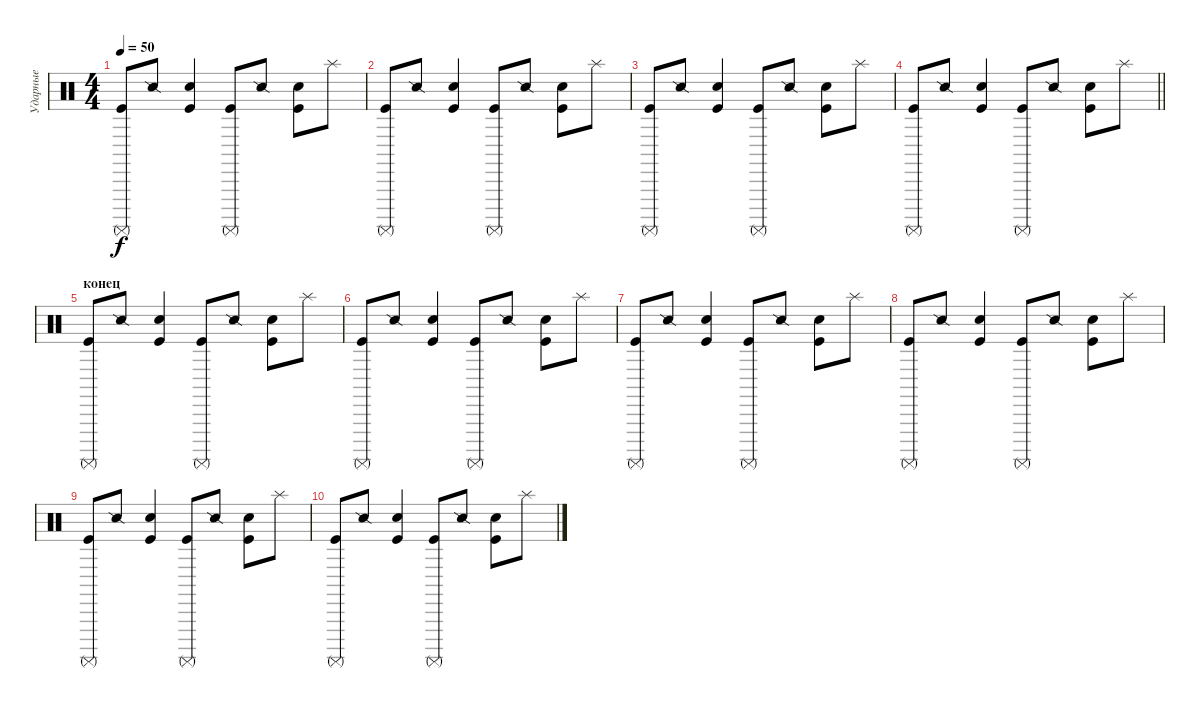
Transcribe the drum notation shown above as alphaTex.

\track ("Ударные" "Ударные") {instrument percussion}
\staff {score}
\articulation defaults
\ts (4 4)
\tempo 50
\clef neutral
\ks c
("Kick (hit)" "Surdo (mute)").8{dy f} "Snare (side stick) 2".8 ("Snare (hit) 2" "Kick (hit)").4 ("Kick (hit)" "Surdo (mute)").8 "Snare (side stick) 2".8 ("Snare (hit) 2" "Kick (hit)").8 "Splash (hit)".8 |
("Kick (hit)" "Surdo (mute)").8 "Snare (side stick) 2".8 ("Snare (hit) 2" "Kick (hit)").4 ("Kick (hit)" "Surdo (mute)").8 "Snare (side stick) 2".8 ("Snare (hit) 2" "Kick (hit)").8 "Splash (hit)".8 |
("Kick (hit)" "Surdo (mute)").8 "Snare (side stick) 2".8 ("Snare (hit) 2" "Kick (hit)").4 ("Kick (hit)" "Surdo (mute)").8 "Snare (side stick) 2".8 ("Snare (hit) 2" "Kick (hit)").8 "Splash (hit)".8 |
\barLineRight lightlight
("Kick (hit)" "Surdo (mute)").8 "Snare (side stick) 2".8 ("Snare (hit) 2" "Kick (hit)").4 ("Kick (hit)" "Surdo (mute)").8 "Snare (side stick) 2".8 ("Snare (hit) 2" "Kick (hit)").8 "Splash (hit)".8 |
\section ("" "конец")
("Kick (hit)" "Surdo (mute)").8 "Snare (side stick) 2".8 ("Snare (hit) 2" "Kick (hit)").4 ("Kick (hit)" "Surdo (mute)").8 "Snare (side stick) 2".8 ("Snare (hit) 2" "Kick (hit)").8 "Splash (hit)".8 |
("Kick (hit)" "Surdo (mute)").8 "Snare (side stick) 2".8 ("Snare (hit) 2" "Kick (hit)").4 ("Kick (hit)" "Surdo (mute)").8 "Snare (side stick) 2".8 ("Snare (hit) 2" "Kick (hit)").8 "Splash (hit)".8 |
("Kick (hit)" "Surdo (mute)").8 "Snare (side stick) 2".8 ("Snare (hit) 2" "Kick (hit)").4 ("Kick (hit)" "Surdo (mute)").8 "Snare (side stick) 2".8 ("Snare (hit) 2" "Kick (hit)").8 "Splash (hit)".8 |
("Kick (hit)" "Surdo (mute)").8 "Snare (side stick) 2".8 ("Snare (hit) 2" "Kick (hit)").4 ("Kick (hit)" "Surdo (mute)").8 "Snare (side stick) 2".8 ("Snare (hit) 2" "Kick (hit)").8 "Splash (hit)".8 |
("Kick (hit)" "Surdo (mute)").8 "Snare (side stick) 2".8 ("Snare (hit) 2" "Kick (hit)").4 ("Kick (hit)" "Surdo (mute)").8 "Snare (side stick) 2".8 ("Snare (hit) 2" "Kick (hit)").8 "Splash (hit)".8 |
("Kick (hit)" "Surdo (mute)").8 "Snare (side stick) 2".8 ("Snare (hit) 2" "Kick (hit)").4 ("Kick (hit)" "Surdo (mute)").8 "Snare (side stick) 2".8 ("Snare (hit) 2" "Kick (hit)").8 "Splash (hit)".8
